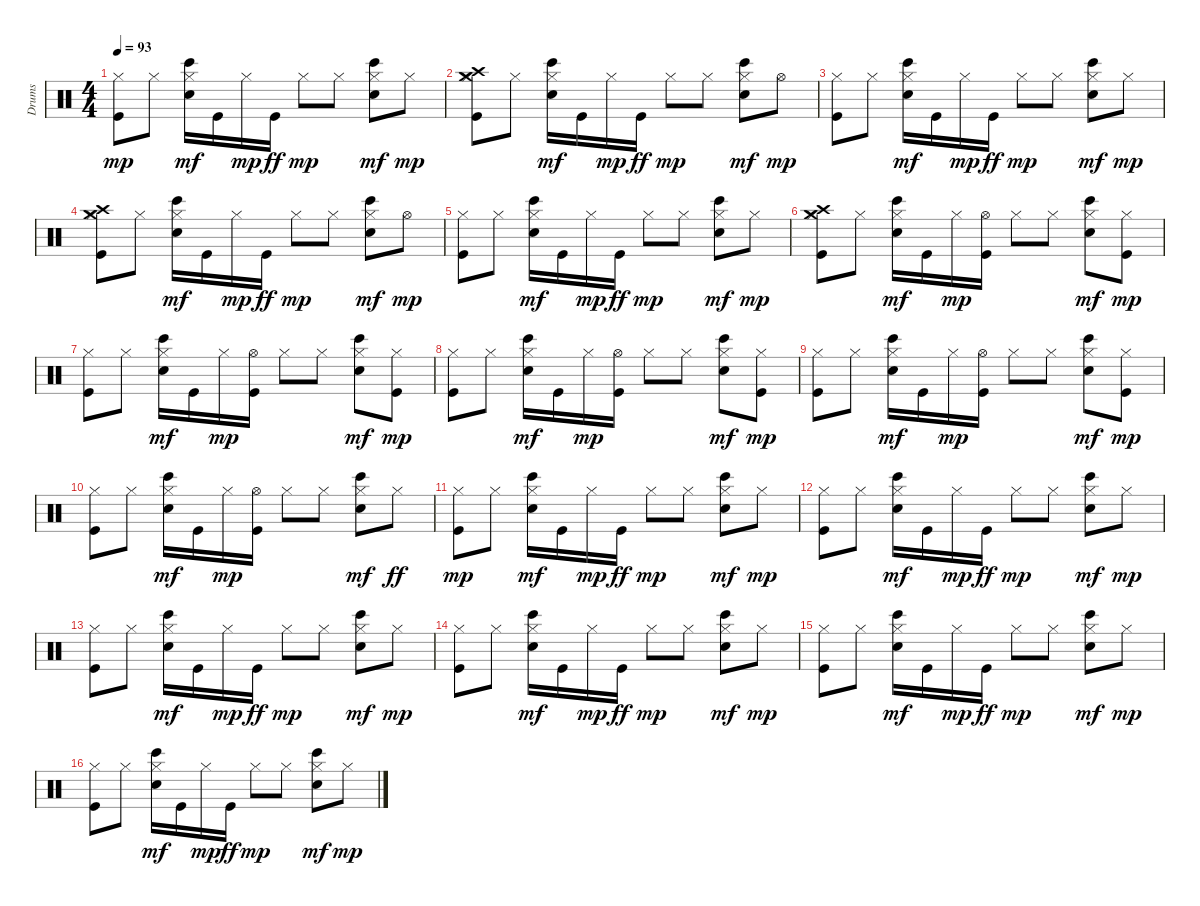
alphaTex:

\track ("Drums" "Drums") {instrument percussion}
\staff {score}
\articulation defaults
\ts (4 4)
\tempo 93
\clef neutral
\ks c
("Kick (hit)" "Hi-Hat (closed)").8{dy mp} "Hi-Hat (closed)".8 ("Hi-Hat (closed)" "Electric Snare (hit)" "Bongo High (hit)").16{dy mf} "Kick (hit)".16 "Hi-Hat (closed)".16{dy mp} "Kick (hit)".16{dy ff} "Hi-Hat (closed)".8{dy mp} "Hi-Hat (closed)".8 ("Hi-Hat (closed)" "Electric Snare (hit)" "Bongo High (hit)").8{dy mf} "Hi-Hat (closed)".8{dy mp} |
("Crash high (hit)" "Crash medium (hit)" "Kick (hit)" "Hi-Hat (closed)").8 "Hi-Hat (closed)".8 ("Hi-Hat (closed)" "Electric Snare (hit)" "Bongo High (hit)").16{dy mf} "Kick (hit)".16 "Hi-Hat (closed)".16{dy mp} "Kick (hit)".16{dy ff} "Hi-Hat (closed)".8{dy mp} "Hi-Hat (closed)".8 ("Hi-Hat (closed)" "Electric Snare (hit)" "Bongo High (hit)").8{dy mf} "Hi-Hat (open)".8{dy mp} |
("Kick (hit)" "Hi-Hat (closed)").8 "Hi-Hat (closed)".8 ("Hi-Hat (closed)" "Electric Snare (hit)" "Bongo High (hit)").16{dy mf} "Kick (hit)".16 "Hi-Hat (closed)".16{dy mp} "Kick (hit)".16{dy ff} "Hi-Hat (closed)".8{dy mp} "Hi-Hat (closed)".8 ("Hi-Hat (closed)" "Electric Snare (hit)" "Bongo High (hit)").8{dy mf} "Hi-Hat (closed)".8{dy mp} |
("Crash high (hit)" "Crash medium (hit)" "Kick (hit)" "Hi-Hat (closed)").8 "Hi-Hat (closed)".8 ("Hi-Hat (closed)" "Electric Snare (hit)" "Bongo High (hit)").16{dy mf} "Kick (hit)".16 "Hi-Hat (closed)".16{dy mp} "Kick (hit)".16{dy ff} "Hi-Hat (closed)".8{dy mp} "Hi-Hat (closed)".8 ("Hi-Hat (closed)" "Electric Snare (hit)" "Bongo High (hit)").8{dy mf} "Hi-Hat (open)".8{dy mp} |
("Kick (hit)" "Hi-Hat (closed)").8 "Hi-Hat (closed)".8 ("Hi-Hat (closed)" "Electric Snare (hit)" "Bongo High (hit)").16{dy mf} "Kick (hit)".16 "Hi-Hat (closed)".16{dy mp} "Kick (hit)".16{dy ff} "Hi-Hat (closed)".8{dy mp} "Hi-Hat (closed)".8 ("Hi-Hat (closed)" "Electric Snare (hit)" "Bongo High (hit)").8{dy mf} "Hi-Hat (closed)".8{dy mp} |
("Crash high (hit)" "Crash medium (hit)" "Kick (hit)" "Hi-Hat (closed)").8 "Hi-Hat (closed)".8 ("Hi-Hat (closed)" "Electric Snare (hit)" "Bongo High (hit)").16{dy mf} "Kick (hit)".16 "Hi-Hat (closed)".16{dy mp} ("Kick (hit)" "Hi-Hat (open)").16 "Hi-Hat (closed)".8 "Hi-Hat (closed)".8 ("Hi-Hat (closed)" "Electric Snare (hit)" "Bongo High (hit)").8{dy mf} ("Kick (hit)" "Hi-Hat (closed)").8{dy mp} |
("Kick (hit)" "Hi-Hat (closed)").8 "Hi-Hat (closed)".8 ("Hi-Hat (closed)" "Electric Snare (hit)" "Bongo High (hit)").16{dy mf} "Kick (hit)".16 "Hi-Hat (closed)".16{dy mp} ("Kick (hit)" "Hi-Hat (open)").16 "Hi-Hat (closed)".8 "Hi-Hat (closed)".8 ("Hi-Hat (closed)" "Electric Snare (hit)" "Bongo High (hit)").8{dy mf} ("Kick (hit)" "Hi-Hat (closed)").8{dy mp} |
("Kick (hit)" "Hi-Hat (closed)").8 "Hi-Hat (closed)".8 ("Hi-Hat (closed)" "Electric Snare (hit)" "Bongo High (hit)").16{dy mf} "Kick (hit)".16 "Hi-Hat (closed)".16{dy mp} ("Kick (hit)" "Hi-Hat (open)").16 "Hi-Hat (closed)".8 "Hi-Hat (closed)".8 ("Hi-Hat (closed)" "Electric Snare (hit)" "Bongo High (hit)").8{dy mf} ("Kick (hit)" "Hi-Hat (closed)").8{dy mp} |
("Kick (hit)" "Hi-Hat (closed)").8 "Hi-Hat (closed)".8 ("Hi-Hat (closed)" "Electric Snare (hit)" "Bongo High (hit)").16{dy mf} "Kick (hit)".16 "Hi-Hat (closed)".16{dy mp} ("Kick (hit)" "Hi-Hat (open)").16 "Hi-Hat (closed)".8 "Hi-Hat (closed)".8 ("Hi-Hat (closed)" "Electric Snare (hit)" "Bongo High (hit)").8{dy mf} ("Kick (hit)" "Hi-Hat (closed)").8{dy mp} |
("Kick (hit)" "Hi-Hat (closed)").8 "Hi-Hat (closed)".8 ("Hi-Hat (closed)" "Electric Snare (hit)" "Bongo High (hit)").16{dy mf} "Kick (hit)".16 "Hi-Hat (closed)".16{dy mp} ("Kick (hit)" "Hi-Hat (open)").16 "Hi-Hat (closed)".8 "Hi-Hat (closed)".8 ("Hi-Hat (closed)" "Electric Snare (hit)" "Bongo High (hit)").8{dy mf} "Hi-Hat (closed)".8{dy ff} |
("Kick (hit)" "Hi-Hat (closed)").8{dy mp} "Hi-Hat (closed)".8 ("Hi-Hat (closed)" "Electric Snare (hit)" "Bongo High (hit)").16{dy mf} "Kick (hit)".16 "Hi-Hat (closed)".16{dy mp} "Kick (hit)".16{dy ff} "Hi-Hat (closed)".8{dy mp} "Hi-Hat (closed)".8 ("Hi-Hat (closed)" "Electric Snare (hit)" "Bongo High (hit)").8{dy mf} "Hi-Hat (closed)".8{dy mp} |
("Kick (hit)" "Hi-Hat (closed)").8 "Hi-Hat (closed)".8 ("Hi-Hat (closed)" "Electric Snare (hit)" "Bongo High (hit)").16{dy mf} "Kick (hit)".16 "Hi-Hat (closed)".16{dy mp} "Kick (hit)".16{dy ff} "Hi-Hat (closed)".8{dy mp} "Hi-Hat (closed)".8 ("Hi-Hat (closed)" "Electric Snare (hit)" "Bongo High (hit)").8{dy mf} "Hi-Hat (closed)".8{dy mp} |
("Kick (hit)" "Hi-Hat (closed)").8 "Hi-Hat (closed)".8 ("Hi-Hat (closed)" "Electric Snare (hit)" "Bongo High (hit)").16{dy mf} "Kick (hit)".16 "Hi-Hat (closed)".16{dy mp} "Kick (hit)".16{dy ff} "Hi-Hat (closed)".8{dy mp} "Hi-Hat (closed)".8 ("Hi-Hat (closed)" "Electric Snare (hit)" "Bongo High (hit)").8{dy mf} "Hi-Hat (closed)".8{dy mp} |
("Kick (hit)" "Hi-Hat (closed)").8 "Hi-Hat (closed)".8 ("Hi-Hat (closed)" "Electric Snare (hit)" "Bongo High (hit)").16{dy mf} "Kick (hit)".16 "Hi-Hat (closed)".16{dy mp} "Kick (hit)".16{dy ff} "Hi-Hat (closed)".8{dy mp} "Hi-Hat (closed)".8 ("Hi-Hat (closed)" "Electric Snare (hit)" "Bongo High (hit)").8{dy mf} "Hi-Hat (closed)".8{dy mp} |
("Kick (hit)" "Hi-Hat (closed)").8 "Hi-Hat (closed)".8 ("Hi-Hat (closed)" "Electric Snare (hit)" "Bongo High (hit)").16{dy mf} "Kick (hit)".16 "Hi-Hat (closed)".16{dy mp} "Kick (hit)".16{dy ff} "Hi-Hat (closed)".8{dy mp} "Hi-Hat (closed)".8 ("Hi-Hat (closed)" "Electric Snare (hit)" "Bongo High (hit)").8{dy mf} "Hi-Hat (closed)".8{dy mp} |
("Kick (hit)" "Hi-Hat (closed)").8 "Hi-Hat (closed)".8 ("Hi-Hat (closed)" "Electric Snare (hit)" "Bongo High (hit)").16{dy mf} "Kick (hit)".16 "Hi-Hat (closed)".16{dy mp} "Kick (hit)".16{dy ff} "Hi-Hat (closed)".8{dy mp} "Hi-Hat (closed)".8 ("Hi-Hat (closed)" "Electric Snare (hit)" "Bongo High (hit)").8{dy mf} "Hi-Hat (closed)".8{dy mp}
